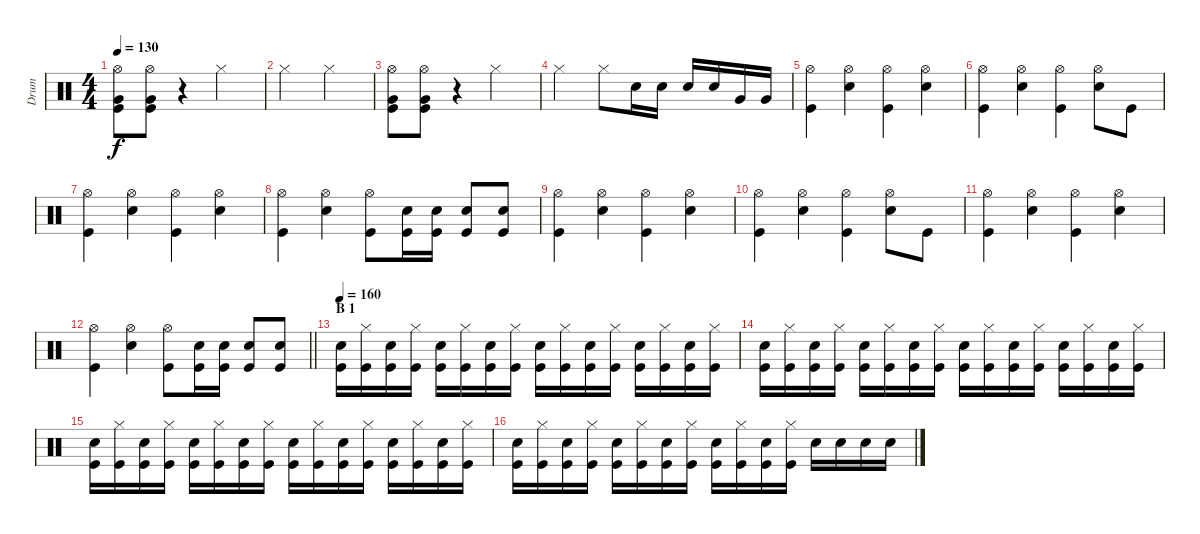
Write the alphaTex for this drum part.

\track ("Drum" "Drum") {instrument percussion}
\staff
\articulation defaults
\ts (4 4)
\tempo 130
\clef neutral
\ks c
("Hi-Hat (open)" "Very Low Tom (hit)" "Kick (hit)").8{dy f} ("Hi-Hat (open)" "Very Low Tom (hit)" "Kick (hit)").8 r.4 "Hi-Hat (closed)".2 |
"Hi-Hat (closed)".2 "Hi-Hat (closed)".2 |
("Hi-Hat (open)" "Very Low Tom (hit)" "Kick (hit)").8 ("Hi-Hat (open)" "Very Low Tom (hit)" "Kick (hit)").8 r.4 "Hi-Hat (closed)".2 |
"Hi-Hat (closed)".2 "Hi-Hat (closed)".8 "Snare (hit) 2".16 "Snare (hit) 2".16 "Snare (hit) 2".16 "Snare (hit) 2".16 "Very Low Tom (hit)".16 "Very Low Tom (hit)".16 |
("Hi-Hat (open)" "Kick (hit)").4 ("Hi-Hat (open)" "Snare (hit) 2").4 ("Hi-Hat (open)" "Kick (hit)").4 ("Hi-Hat (open)" "Snare (hit) 2").4 |
("Hi-Hat (open)" "Kick (hit)").4 ("Hi-Hat (open)" "Snare (hit) 2").4 ("Hi-Hat (open)" "Kick (hit)").4 ("Hi-Hat (open)" "Snare (hit) 2").8 "Kick (hit)".8 |
("Hi-Hat (open)" "Kick (hit)").4 ("Hi-Hat (open)" "Snare (hit) 2").4 ("Hi-Hat (open)" "Kick (hit)").4 ("Hi-Hat (open)" "Snare (hit) 2").4 |
("Hi-Hat (open)" "Kick (hit)").4 ("Hi-Hat (open)" "Snare (hit) 2").4 ("Hi-Hat (open)" "Kick (hit)").8 ("Snare (hit) 2" "Kick (hit)").16 ("Snare (hit) 2" "Kick (hit)").16 ("Snare (hit) 2" "Kick (hit)").8 ("Snare (hit) 2" "Kick (hit)").8 |
("Hi-Hat (open)" "Kick (hit)").4 ("Hi-Hat (open)" "Snare (hit) 2").4 ("Hi-Hat (open)" "Kick (hit)").4 ("Hi-Hat (open)" "Snare (hit) 2").4 |
("Hi-Hat (open)" "Kick (hit)").4 ("Hi-Hat (open)" "Snare (hit) 2").4 ("Hi-Hat (open)" "Kick (hit)").4 ("Hi-Hat (open)" "Snare (hit) 2").8 "Kick (hit)".8 |
("Hi-Hat (open)" "Kick (hit)").4 ("Hi-Hat (open)" "Snare (hit) 2").4 ("Hi-Hat (open)" "Kick (hit)").4 ("Hi-Hat (open)" "Snare (hit) 2").4 |
\barLineRight lightlight
("Hi-Hat (open)" "Kick (hit)").4 ("Hi-Hat (open)" "Snare (hit) 2").4 ("Hi-Hat (open)" "Kick (hit)").8 ("Snare (hit) 2" "Kick (hit)").16 ("Snare (hit) 2" "Kick (hit)").16 ("Snare (hit) 2" "Kick (hit)").8 ("Snare (hit) 2" "Kick (hit)").8 |
\section ("" "B 1")
\tempo 160
("Snare (hit) 2" "Kick (hit)").16 ("Hi-Hat (closed)" "Kick (hit)").16 ("Snare (hit) 2" "Kick (hit)").16 ("Hi-Hat (closed)" "Kick (hit)").16 ("Snare (hit) 2" "Kick (hit)").16 ("Hi-Hat (closed)" "Kick (hit)").16 ("Snare (hit) 2" "Kick (hit)").16 ("Hi-Hat (closed)" "Kick (hit)").16 ("Snare (hit) 2" "Kick (hit)").16 ("Hi-Hat (closed)" "Kick (hit)").16 ("Snare (hit) 2" "Kick (hit)").16 ("Hi-Hat (closed)" "Kick (hit)").16 ("Snare (hit) 2" "Kick (hit)").16 ("Hi-Hat (closed)" "Kick (hit)").16 ("Snare (hit) 2" "Kick (hit)").16 ("Hi-Hat (closed)" "Kick (hit)").16 |
("Snare (hit) 2" "Kick (hit)").16 ("Hi-Hat (closed)" "Kick (hit)").16 ("Snare (hit) 2" "Kick (hit)").16 ("Hi-Hat (closed)" "Kick (hit)").16 ("Snare (hit) 2" "Kick (hit)").16 ("Hi-Hat (closed)" "Kick (hit)").16 ("Snare (hit) 2" "Kick (hit)").16 ("Hi-Hat (closed)" "Kick (hit)").16 ("Snare (hit) 2" "Kick (hit)").16 ("Hi-Hat (closed)" "Kick (hit)").16 ("Snare (hit) 2" "Kick (hit)").16 ("Hi-Hat (closed)" "Kick (hit)").16 ("Snare (hit) 2" "Kick (hit)").16 ("Hi-Hat (closed)" "Kick (hit)").16 ("Snare (hit) 2" "Kick (hit)").16 ("Hi-Hat (closed)" "Kick (hit)").16 |
("Snare (hit) 2" "Kick (hit)").16 ("Hi-Hat (closed)" "Kick (hit)").16 ("Snare (hit) 2" "Kick (hit)").16 ("Hi-Hat (closed)" "Kick (hit)").16 ("Snare (hit) 2" "Kick (hit)").16 ("Hi-Hat (closed)" "Kick (hit)").16 ("Snare (hit) 2" "Kick (hit)").16 ("Hi-Hat (closed)" "Kick (hit)").16 ("Snare (hit) 2" "Kick (hit)").16 ("Hi-Hat (closed)" "Kick (hit)").16 ("Snare (hit) 2" "Kick (hit)").16 ("Hi-Hat (closed)" "Kick (hit)").16 ("Snare (hit) 2" "Kick (hit)").16 ("Hi-Hat (closed)" "Kick (hit)").16 ("Snare (hit) 2" "Kick (hit)").16 ("Hi-Hat (closed)" "Kick (hit)").16 |
("Snare (hit) 2" "Kick (hit)").16 ("Hi-Hat (closed)" "Kick (hit)").16 ("Snare (hit) 2" "Kick (hit)").16 ("Hi-Hat (closed)" "Kick (hit)").16 ("Snare (hit) 2" "Kick (hit)").16 ("Hi-Hat (closed)" "Kick (hit)").16 ("Snare (hit) 2" "Kick (hit)").16 ("Hi-Hat (closed)" "Kick (hit)").16 ("Snare (hit) 2" "Kick (hit)").16 ("Hi-Hat (closed)" "Kick (hit)").16 ("Snare (hit) 2" "Kick (hit)").16 ("Hi-Hat (closed)" "Kick (hit)").16 "Snare (hit) 2".16 "Snare (hit) 2".16 "Snare (hit) 2".16 "Snare (hit) 2".16
